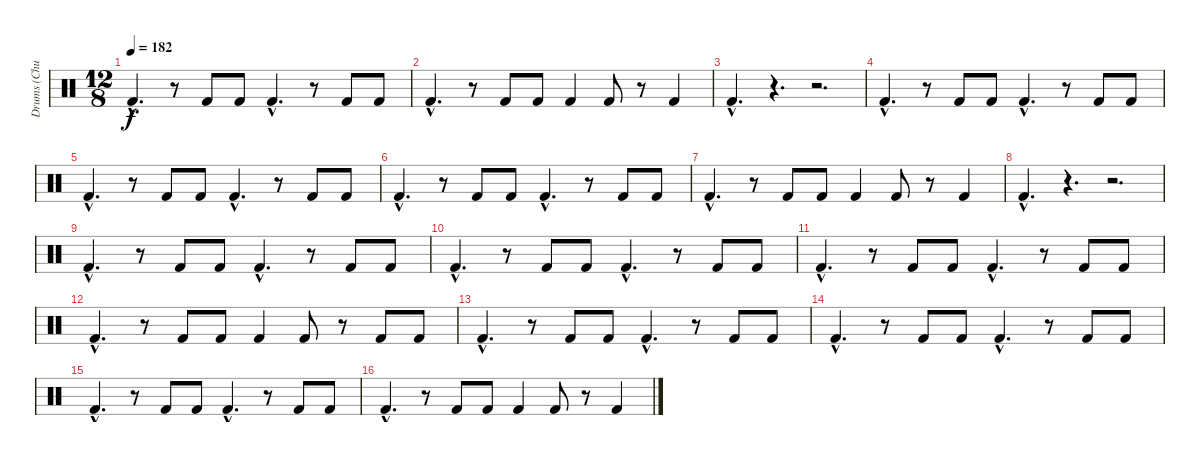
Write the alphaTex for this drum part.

\track ("Drums (Chuck Behler)" "Drums (Chu") {instrument percussion}
\staff {score}
\articulation defaults
\ts (12 8)
\tempo 182
\clef neutral
\ks c "Kick (hit) 2"{hac}.4{d dy f}
r.8 "Kick (hit) 2".8 "Kick (hit) 2".8 "Kick (hit) 2"{hac}.4{d} r.8 "Kick (hit) 2".8 "Kick (hit) 2".8 |
"Kick (hit) 2"{hac}.4{d} r.8 "Kick (hit) 2".8 "Kick (hit) 2".8 "Kick (hit) 2".4 "Kick (hit) 2".8 r.8 "Kick (hit) 2".4 |
"Kick (hit) 2"{hac}.4{d} r.4{d} r.2{d} |
"Kick (hit) 2"{hac}.4{d} r.8 "Kick (hit) 2".8 "Kick (hit) 2".8 "Kick (hit) 2"{hac}.4{d} r.8 "Kick (hit) 2".8 "Kick (hit) 2".8 |
"Kick (hit) 2"{hac}.4{d} r.8 "Kick (hit) 2".8 "Kick (hit) 2".8 "Kick (hit) 2"{hac}.4{d} r.8 "Kick (hit) 2".8 "Kick (hit) 2".8 |
"Kick (hit) 2"{hac}.4{d} r.8 "Kick (hit) 2".8 "Kick (hit) 2".8 "Kick (hit) 2"{hac}.4{d} r.8 "Kick (hit) 2".8 "Kick (hit) 2".8 |
"Kick (hit) 2"{hac}.4{d} r.8 "Kick (hit) 2".8 "Kick (hit) 2".8 "Kick (hit) 2".4 "Kick (hit) 2".8 r.8 "Kick (hit) 2".4 |
"Kick (hit) 2"{hac}.4{d} r.4{d} r.2{d} |
"Kick (hit) 2"{hac}.4{d} r.8 "Kick (hit) 2".8 "Kick (hit) 2".8 "Kick (hit) 2"{hac}.4{d} r.8 "Kick (hit) 2".8 "Kick (hit) 2".8 |
"Kick (hit) 2"{hac}.4{d} r.8 "Kick (hit) 2".8 "Kick (hit) 2".8 "Kick (hit) 2"{hac}.4{d} r.8 "Kick (hit) 2".8 "Kick (hit) 2".8 |
"Kick (hit) 2"{hac}.4{d} r.8 "Kick (hit) 2".8 "Kick (hit) 2".8 "Kick (hit) 2"{hac}.4{d} r.8 "Kick (hit) 2".8 "Kick (hit) 2".8 |
"Kick (hit) 2"{hac}.4{d} r.8 "Kick (hit) 2".8 "Kick (hit) 2".8 "Kick (hit) 2".4 "Kick (hit) 2".8 r.8 "Kick (hit) 2".8 "Kick (hit) 2".8 |
"Kick (hit) 2"{hac}.4{d} r.8 "Kick (hit) 2".8 "Kick (hit) 2".8 "Kick (hit) 2"{hac}.4{d} r.8 "Kick (hit) 2".8 "Kick (hit) 2".8 |
"Kick (hit) 2"{hac}.4{d} r.8 "Kick (hit) 2".8 "Kick (hit) 2".8 "Kick (hit) 2"{hac}.4{d} r.8 "Kick (hit) 2".8 "Kick (hit) 2".8 |
"Kick (hit) 2"{hac}.4{d} r.8 "Kick (hit) 2".8 "Kick (hit) 2".8 "Kick (hit) 2"{hac}.4{d} r.8 "Kick (hit) 2".8 "Kick (hit) 2".8 |
"Kick (hit) 2"{hac}.4{d} r.8 "Kick (hit) 2".8 "Kick (hit) 2".8 "Kick (hit) 2".4 "Kick (hit) 2".8 r.8 "Kick (hit) 2".4
